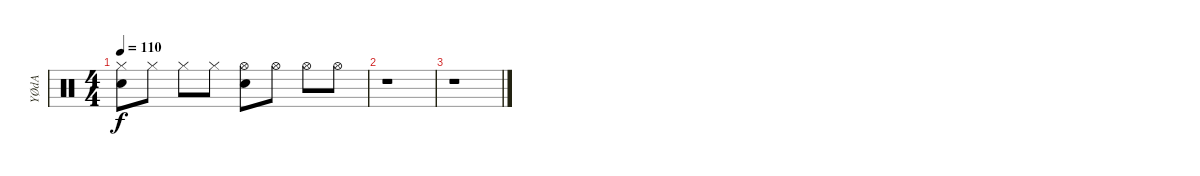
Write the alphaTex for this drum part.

\track ("YØdA" "YØdA") {instrument percussion}
\staff {score}
\articulation defaults
\ts (4 4)
\tempo 110
\clef neutral
\ks c
("Hi-Hat (closed)" "Electric Snare (hit)").8{dy f} "Hi-Hat (closed)".8 "Hi-Hat (closed)".8 "Hi-Hat (closed)".8 ("Hi-Hat (open)" "Electric Snare (hit)").8 "Hi-Hat (open)".8 "Hi-Hat (open)".8 "Hi-Hat (open)".8 |
r.1 |
r.1
